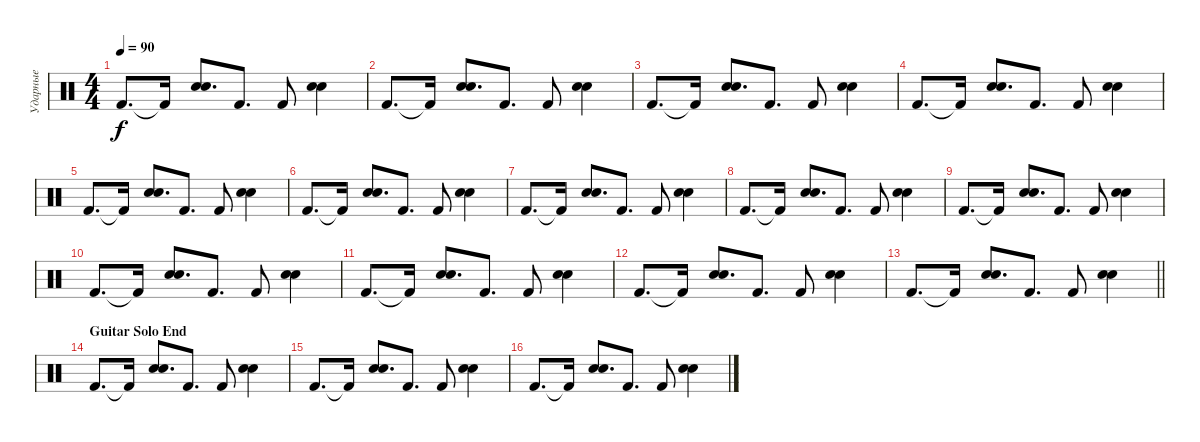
\track ("Ударные" "Ударные") {instrument percussion}
\staff {score}
\articulation defaults
\ts (4 4)
\tempo 90
\clef neutral
\ks c "Kick (hit) 2".8{d dy f} "Kick (hit) 2"{t}.16
("Hand Clap (hit)" "Snare (hit) 2").8{d} "Kick (hit) 2".8{d} "Kick (hit) 2".8 ("Hand Clap (hit)" "Snare (hit) 2").4 |
"Kick (hit) 2".8{d} "Kick (hit) 2"{t}.16 ("Hand Clap (hit)" "Snare (hit) 2").8{d} "Kick (hit) 2".8{d} "Kick (hit) 2".8 ("Hand Clap (hit)" "Snare (hit) 2").4 |
"Kick (hit) 2".8{d} "Kick (hit) 2"{t}.16 ("Hand Clap (hit)" "Snare (hit) 2").8{d} "Kick (hit) 2".8{d} "Kick (hit) 2".8 ("Hand Clap (hit)" "Snare (hit) 2").4 |
"Kick (hit) 2".8{d} "Kick (hit) 2"{t}.16 ("Hand Clap (hit)" "Snare (hit) 2").8{d} "Kick (hit) 2".8{d} "Kick (hit) 2".8 ("Hand Clap (hit)" "Snare (hit) 2").4 |
"Kick (hit) 2".8{d} "Kick (hit) 2"{t}.16 ("Hand Clap (hit)" "Snare (hit) 2").8{d} "Kick (hit) 2".8{d} "Kick (hit) 2".8 ("Hand Clap (hit)" "Snare (hit) 2").4 |
"Kick (hit) 2".8{d} "Kick (hit) 2"{t}.16 ("Hand Clap (hit)" "Snare (hit) 2").8{d} "Kick (hit) 2".8{d} "Kick (hit) 2".8 ("Hand Clap (hit)" "Snare (hit) 2").4 |
"Kick (hit) 2".8{d} "Kick (hit) 2"{t}.16 ("Hand Clap (hit)" "Snare (hit) 2").8{d} "Kick (hit) 2".8{d} "Kick (hit) 2".8 ("Hand Clap (hit)" "Snare (hit) 2").4 |
"Kick (hit) 2".8{d} "Kick (hit) 2"{t}.16 ("Hand Clap (hit)" "Snare (hit) 2").8{d} "Kick (hit) 2".8{d} "Kick (hit) 2".8 ("Hand Clap (hit)" "Snare (hit) 2").4 |
"Kick (hit) 2".8{d} "Kick (hit) 2"{t}.16 ("Hand Clap (hit)" "Snare (hit) 2").8{d} "Kick (hit) 2".8{d} "Kick (hit) 2".8 ("Hand Clap (hit)" "Snare (hit) 2").4 |
"Kick (hit) 2".8{d} "Kick (hit) 2"{t}.16 ("Hand Clap (hit)" "Snare (hit) 2").8{d} "Kick (hit) 2".8{d} "Kick (hit) 2".8 ("Hand Clap (hit)" "Snare (hit) 2").4 |
"Kick (hit) 2".8{d} "Kick (hit) 2"{t}.16 ("Hand Clap (hit)" "Snare (hit) 2").8{d} "Kick (hit) 2".8{d} "Kick (hit) 2".8 ("Hand Clap (hit)" "Snare (hit) 2").4 |
"Kick (hit) 2".8{d} "Kick (hit) 2"{t}.16 ("Hand Clap (hit)" "Snare (hit) 2").8{d} "Kick (hit) 2".8{d} "Kick (hit) 2".8 ("Hand Clap (hit)" "Snare (hit) 2").4 |
\barLineRight lightlight "Kick (hit) 2".8{d} "Kick (hit) 2"{t}.16
("Hand Clap (hit)" "Snare (hit) 2").8{d} "Kick (hit) 2".8{d} "Kick (hit) 2".8 ("Hand Clap (hit)" "Snare (hit) 2").4 |
\section ("" "Guitar Solo End")
"Kick (hit) 2".8{d} "Kick (hit) 2"{t}.16 ("Hand Clap (hit)" "Snare (hit) 2").8{d} "Kick (hit) 2".8{d} "Kick (hit) 2".8 ("Hand Clap (hit)" "Snare (hit) 2").4 |
"Kick (hit) 2".8{d} "Kick (hit) 2"{t}.16 ("Hand Clap (hit)" "Snare (hit) 2").8{d} "Kick (hit) 2".8{d} "Kick (hit) 2".8 ("Hand Clap (hit)" "Snare (hit) 2").4 |
"Kick (hit) 2".8{d} "Kick (hit) 2"{t}.16 ("Hand Clap (hit)" "Snare (hit) 2").8{d} "Kick (hit) 2".8{d} "Kick (hit) 2".8 ("Hand Clap (hit)" "Snare (hit) 2").4
